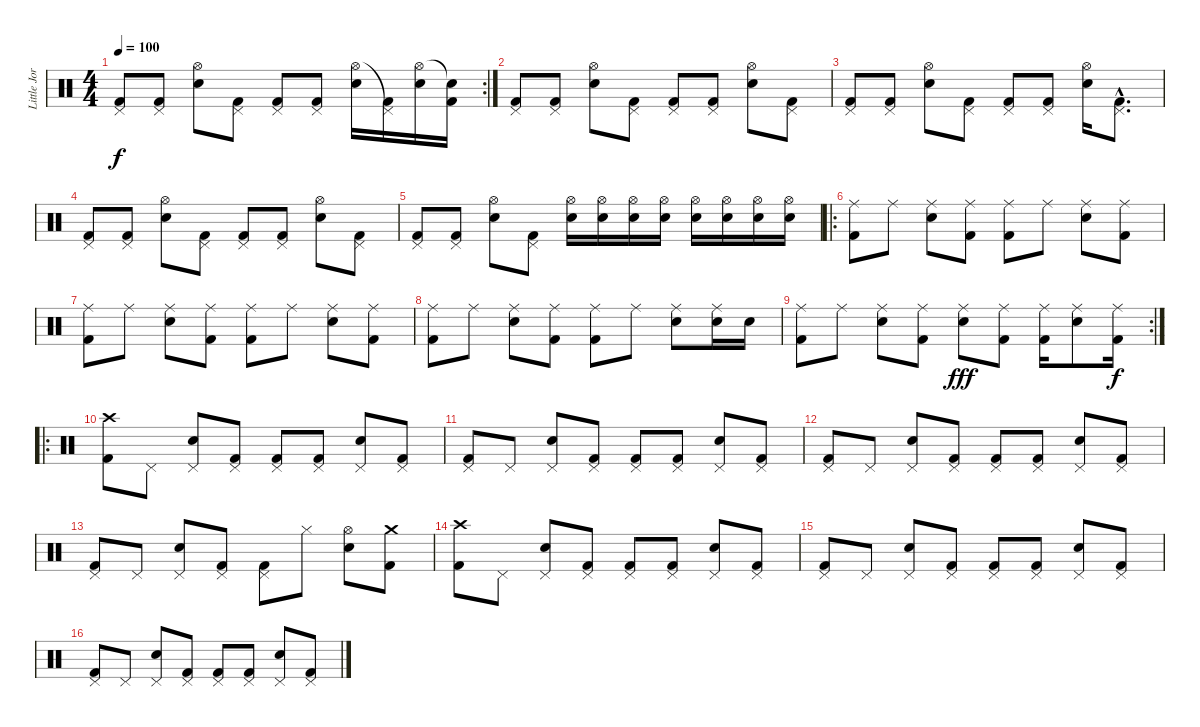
\track ("Little JorDiSoN" "Little Jor") {instrument percussion}
\staff {score}
\articulation defaults
\rc 2
\ts (4 4)
\tempo 100
\clef neutral
\ks c
("Pedal Hi-Hat (hit)" "Kick (hit) 2").8{dy f} ("Pedal Hi-Hat (hit)" "Kick (hit) 2").8 ("Hi-Hat (open)" "Electric Snare (hit)").8 ("Pedal Hi-Hat (hit)" "Kick (hit) 2").8 ("Pedal Hi-Hat (hit)" "Kick (hit) 2").8 ("Pedal Hi-Hat (hit)" "Kick (hit) 2").8 ("Hi-Hat (open)" "Electric Snare (hit)").16 ("Pedal Hi-Hat (hit)"{t} "Kick (hit) 2").16 ("Hi-Hat (open)" "Electric Snare (hit)").16 ("Snare (hit)"{t} "Kick (hit) 2").16 |
("Pedal Hi-Hat (hit)" "Kick (hit) 2").8 ("Pedal Hi-Hat (hit)" "Kick (hit) 2").8 ("Hi-Hat (open)" "Electric Snare (hit)").8 ("Pedal Hi-Hat (hit)" "Kick (hit) 2").8 ("Pedal Hi-Hat (hit)" "Kick (hit) 2").8 ("Pedal Hi-Hat (hit)" "Kick (hit) 2").8 ("Hi-Hat (open)" "Electric Snare (hit)").8 ("Pedal Hi-Hat (hit)" "Kick (hit) 2").8 |
("Pedal Hi-Hat (hit)" "Kick (hit) 2").8 ("Pedal Hi-Hat (hit)" "Kick (hit) 2").8 ("Hi-Hat (open)" "Electric Snare (hit)").8 ("Pedal Hi-Hat (hit)" "Kick (hit) 2").8 ("Pedal Hi-Hat (hit)" "Kick (hit) 2").8 ("Pedal Hi-Hat (hit)" "Kick (hit) 2").8 ("Hi-Hat (open)" "Electric Snare (hit)").16 ("Pedal Hi-Hat (hit)"{hac} "Kick (hit) 2"{hac}).8{d} |
("Pedal Hi-Hat (hit)" "Kick (hit) 2").8 ("Pedal Hi-Hat (hit)" "Kick (hit) 2").8 ("Hi-Hat (open)" "Electric Snare (hit)").8 ("Pedal Hi-Hat (hit)" "Kick (hit) 2").8 ("Pedal Hi-Hat (hit)" "Kick (hit) 2").8 ("Pedal Hi-Hat (hit)" "Kick (hit) 2").8 ("Hi-Hat (open)" "Electric Snare (hit)").8 ("Pedal Hi-Hat (hit)" "Kick (hit) 2").8 |
("Pedal Hi-Hat (hit)" "Kick (hit) 2").8 ("Pedal Hi-Hat (hit)" "Kick (hit) 2").8 ("Hi-Hat (open)" "Electric Snare (hit)").8 ("Pedal Hi-Hat (hit)" "Kick (hit) 2").8 ("Hi-Hat (open)" "Electric Snare (hit)").16 ("Hi-Hat (open)" "Electric Snare (hit)").16 ("Hi-Hat (open)" "Electric Snare (hit)").16 ("Hi-Hat (open)" "Electric Snare (hit)").16 ("Hi-Hat (open)" "Electric Snare (hit)").16 ("Hi-Hat (open)" "Electric Snare (hit)").16 ("Hi-Hat (open)" "Electric Snare (hit)").16 ("Hi-Hat (open)" "Electric Snare (hit)").16 |
\ro
("Ride (middle)" "Kick (hit) 2").8 "Ride (middle)".8 ("Ride (middle)" "Electric Snare (hit)").8 ("Ride (middle)" "Kick (hit) 2").8 ("Ride (middle)" "Kick (hit) 2").8 "Ride (middle)".8 ("Ride (middle)" "Electric Snare (hit)").8 ("Ride (middle)" "Kick (hit) 2").8 |
("Ride (middle)" "Kick (hit) 2").8 "Ride (middle)".8 ("Ride (middle)" "Electric Snare (hit)").8 ("Ride (middle)" "Kick (hit) 2").8 ("Ride (middle)" "Kick (hit) 2").8 "Ride (middle)".8 ("Ride (middle)" "Electric Snare (hit)").8 ("Ride (middle)" "Kick (hit) 2").8 |
("Ride (middle)" "Kick (hit) 2").8 "Ride (middle)".8 ("Ride (middle)" "Electric Snare (hit)").8 ("Ride (middle)" "Kick (hit) 2").8 ("Ride (middle)" "Kick (hit) 2").8 "Ride (middle)".8 ("Ride (middle)" "Electric Snare (hit)").8 ("Ride (middle)" "Electric Snare (hit)").16 "Electric Snare (hit)".16 |
\rc 2
("Ride (middle)" "Kick (hit) 2").8 "Ride (middle)".8 ("Ride (middle)" "Electric Snare (hit)").8 ("Ride (middle)" "Kick (hit) 2").8 ("Ride (middle)" "Electric Snare (hit)").8{dy fff} ("Ride (middle)" "Kick (hit) 2").8 ("Ride (middle)" "Kick (hit) 2").16 ("Ride (middle)" "Electric Snare (hit)").8 ("Ride (middle)" "Kick (hit) 2").16{dy f} |
\ro
("Crash high (hit)" "Kick (hit) 2").8 "Pedal Hi-Hat (hit)".8 ("Pedal Hi-Hat (hit)" "Electric Snare (hit)").8 ("Pedal Hi-Hat (hit)" "Kick (hit) 2").8 ("Pedal Hi-Hat (hit)" "Kick (hit) 2").8 ("Pedal Hi-Hat (hit)" "Kick (hit) 2").8 ("Pedal Hi-Hat (hit)" "Electric Snare (hit)").8 ("Pedal Hi-Hat (hit)" "Kick (hit) 2").8 |
("Pedal Hi-Hat (hit)" "Kick (hit) 2").8 "Pedal Hi-Hat (hit)".8 ("Pedal Hi-Hat (hit)" "Electric Snare (hit)").8 ("Pedal Hi-Hat (hit)" "Kick (hit) 2").8 ("Pedal Hi-Hat (hit)" "Kick (hit) 2").8 ("Pedal Hi-Hat (hit)" "Kick (hit) 2").8 ("Pedal Hi-Hat (hit)" "Electric Snare (hit)").8 ("Pedal Hi-Hat (hit)" "Kick (hit) 2").8 |
("Pedal Hi-Hat (hit)" "Kick (hit) 2").8 "Pedal Hi-Hat (hit)".8 ("Pedal Hi-Hat (hit)" "Electric Snare (hit)").8 ("Pedal Hi-Hat (hit)" "Kick (hit) 2").8 ("Pedal Hi-Hat (hit)" "Kick (hit) 2").8 ("Pedal Hi-Hat (hit)" "Kick (hit) 2").8 ("Pedal Hi-Hat (hit)" "Electric Snare (hit)").8 ("Pedal Hi-Hat (hit)" "Kick (hit) 2").8 |
("Pedal Hi-Hat (hit)" "Kick (hit) 2").8 "Pedal Hi-Hat (hit)".8 ("Pedal Hi-Hat (hit)" "Electric Snare (hit)").8 ("Pedal Hi-Hat (hit)" "Kick (hit) 2").8 ("Pedal Hi-Hat (hit)" "Kick (hit) 2").8 "Hi-Hat (closed)".8 ("Hi-Hat (open)" "Electric Snare (hit)").8 ("Crash medium (hit)" "Kick (hit) 2").8 |
("Crash high (hit)" "Kick (hit) 2").8 "Pedal Hi-Hat (hit)".8 ("Pedal Hi-Hat (hit)" "Electric Snare (hit)").8 ("Pedal Hi-Hat (hit)" "Kick (hit) 2").8 ("Pedal Hi-Hat (hit)" "Kick (hit) 2").8 ("Pedal Hi-Hat (hit)" "Kick (hit) 2").8 ("Pedal Hi-Hat (hit)" "Electric Snare (hit)").8 ("Pedal Hi-Hat (hit)" "Kick (hit) 2").8 |
("Pedal Hi-Hat (hit)" "Kick (hit) 2").8 "Pedal Hi-Hat (hit)".8 ("Pedal Hi-Hat (hit)" "Electric Snare (hit)").8 ("Pedal Hi-Hat (hit)" "Kick (hit) 2").8 ("Pedal Hi-Hat (hit)" "Kick (hit) 2").8 ("Pedal Hi-Hat (hit)" "Kick (hit) 2").8 ("Pedal Hi-Hat (hit)" "Electric Snare (hit)").8 ("Pedal Hi-Hat (hit)" "Kick (hit) 2").8 |
("Pedal Hi-Hat (hit)" "Kick (hit) 2").8 "Pedal Hi-Hat (hit)".8 ("Pedal Hi-Hat (hit)" "Electric Snare (hit)").8 ("Pedal Hi-Hat (hit)" "Kick (hit) 2").8 ("Pedal Hi-Hat (hit)" "Kick (hit) 2").8 ("Pedal Hi-Hat (hit)" "Kick (hit) 2").8 ("Pedal Hi-Hat (hit)" "Electric Snare (hit)").8 ("Pedal Hi-Hat (hit)" "Kick (hit) 2").8
